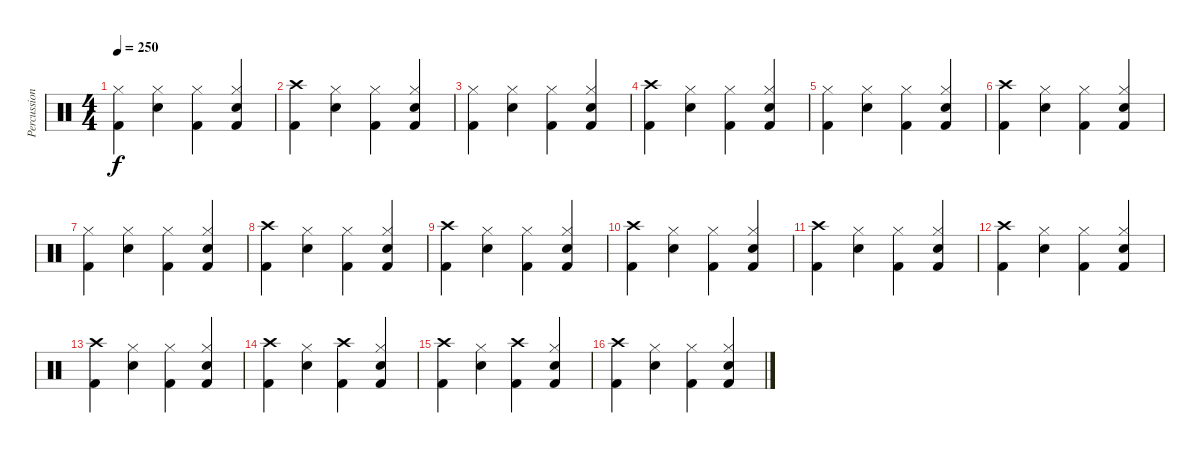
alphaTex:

\track ("Percussion" "Percussion") {instrument percussion}
\staff {score}
\articulation defaults
\ts (4 4)
\tempo 250
\clef neutral
\ks c
("Kick (hit) 2" "Hi-Hat (closed)").4{dy f} ("Electric Snare (hit)" "Hi-Hat (closed)").4 ("Kick (hit) 2" "Hi-Hat (closed)").4 ("Electric Snare (hit)" "Kick (hit) 2" "Hi-Hat (closed)").4 |
("Kick (hit) 2" "Crash high (hit)").4 ("Electric Snare (hit)" "Hi-Hat (closed)").4 ("Kick (hit) 2" "Hi-Hat (closed)").4 ("Electric Snare (hit)" "Kick (hit) 2" "Hi-Hat (closed)").4 |
("Kick (hit) 2" "Hi-Hat (closed)").4 ("Electric Snare (hit)" "Hi-Hat (closed)").4 ("Kick (hit) 2" "Hi-Hat (closed)").4 ("Electric Snare (hit)" "Kick (hit) 2" "Hi-Hat (closed)").4 |
("Kick (hit) 2" "Crash high (hit)").4 ("Electric Snare (hit)" "Hi-Hat (closed)").4 ("Kick (hit) 2" "Hi-Hat (closed)").4 ("Electric Snare (hit)" "Kick (hit) 2" "Hi-Hat (closed)").4 |
("Kick (hit) 2" "Hi-Hat (closed)").4 ("Electric Snare (hit)" "Hi-Hat (closed)").4 ("Kick (hit) 2" "Hi-Hat (closed)").4 ("Electric Snare (hit)" "Kick (hit) 2" "Hi-Hat (closed)").4 |
("Kick (hit) 2" "Crash high (hit)").4 ("Electric Snare (hit)" "Hi-Hat (closed)").4 ("Kick (hit) 2" "Hi-Hat (closed)").4 ("Electric Snare (hit)" "Kick (hit) 2" "Hi-Hat (closed)").4 |
("Kick (hit) 2" "Hi-Hat (closed)").4 ("Electric Snare (hit)" "Hi-Hat (closed)").4 ("Kick (hit) 2" "Hi-Hat (closed)").4 ("Electric Snare (hit)" "Kick (hit) 2" "Hi-Hat (closed)").4 |
("Kick (hit) 2" "Crash high (hit)").4 ("Electric Snare (hit)" "Hi-Hat (closed)").4 ("Kick (hit) 2" "Hi-Hat (closed)").4 ("Electric Snare (hit)" "Kick (hit) 2" "Hi-Hat (closed)").4 |
("Kick (hit) 2" "Crash high (hit)").4 ("Electric Snare (hit)" "Hi-Hat (closed)").4 ("Kick (hit) 2" "Hi-Hat (closed)").4 ("Electric Snare (hit)" "Kick (hit) 2" "Hi-Hat (closed)").4 |
("Kick (hit) 2" "Crash high (hit)").4 ("Electric Snare (hit)" "Hi-Hat (closed)").4 ("Kick (hit) 2" "Hi-Hat (closed)").4 ("Electric Snare (hit)" "Kick (hit) 2" "Hi-Hat (closed)").4 |
("Kick (hit) 2" "Crash high (hit)").4 ("Electric Snare (hit)" "Hi-Hat (closed)").4 ("Kick (hit) 2" "Hi-Hat (closed)").4 ("Electric Snare (hit)" "Kick (hit) 2" "Hi-Hat (closed)").4 |
("Kick (hit) 2" "Crash high (hit)").4 ("Electric Snare (hit)" "Hi-Hat (closed)").4 ("Kick (hit) 2" "Hi-Hat (closed)").4 ("Electric Snare (hit)" "Kick (hit) 2" "Hi-Hat (closed)").4 |
("Kick (hit) 2" "Crash high (hit)").4 ("Electric Snare (hit)" "Hi-Hat (closed)").4 ("Kick (hit) 2" "Hi-Hat (closed)").4 ("Electric Snare (hit)" "Kick (hit) 2" "Hi-Hat (closed)").4 |
("Kick (hit) 2" "Crash high (hit)").4 ("Electric Snare (hit)" "Hi-Hat (closed)").4 ("Kick (hit) 2" "Crash high (hit)").4 ("Electric Snare (hit)" "Kick (hit) 2" "Hi-Hat (closed)").4 |
("Kick (hit) 2" "Crash high (hit)").4 ("Electric Snare (hit)" "Hi-Hat (closed)").4 ("Kick (hit) 2" "Crash high (hit)").4 ("Electric Snare (hit)" "Kick (hit) 2" "Hi-Hat (closed)").4 |
("Kick (hit) 2" "Crash high (hit)").4 ("Electric Snare (hit)" "Hi-Hat (closed)").4 ("Kick (hit) 2" "Hi-Hat (closed)").4 ("Electric Snare (hit)" "Kick (hit) 2" "Hi-Hat (closed)").4
